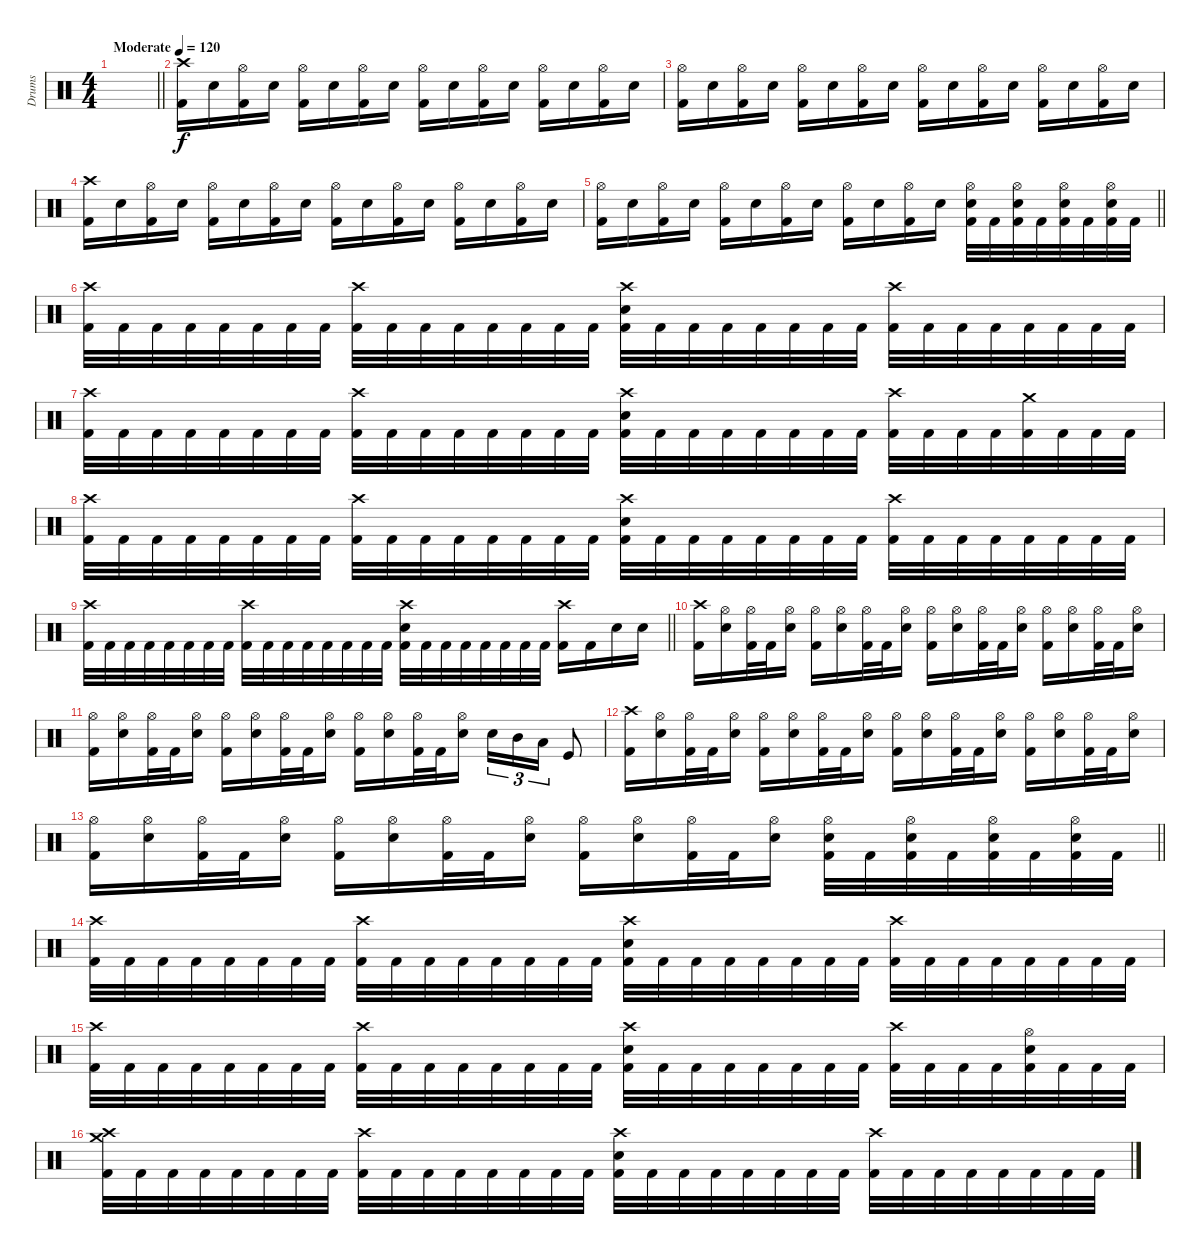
\track ("Drums" "Drums") {instrument percussion}
\staff
\articulation defaults
\ts (4 4)
\tempo (120 "Moderate")
\clef neutral
\barLineRight lightlight
\ks c
|
("Crash high (hit)" "Kick (hit) 2").16 "Electric Snare (hit)".16 ("Hi-Hat (open)" "Kick (hit) 2").16 "Electric Snare (hit)".16 ("Hi-Hat (open)" "Kick (hit) 2").16 "Electric Snare (hit)".16 ("Hi-Hat (open)" "Kick (hit) 2").16 "Electric Snare (hit)".16 ("Hi-Hat (open)" "Kick (hit) 2").16 "Electric Snare (hit)".16 ("Hi-Hat (open)" "Kick (hit) 2").16 "Electric Snare (hit)".16 ("Hi-Hat (open)" "Kick (hit) 2").16 "Electric Snare (hit)".16 ("Hi-Hat (open)" "Kick (hit) 2").16 "Electric Snare (hit)".16 |
("Hi-Hat (open)" "Kick (hit) 2").16 "Electric Snare (hit)".16 ("Hi-Hat (open)" "Kick (hit) 2").16 "Electric Snare (hit)".16 ("Hi-Hat (open)" "Kick (hit) 2").16 "Electric Snare (hit)".16 ("Hi-Hat (open)" "Kick (hit) 2").16 "Electric Snare (hit)".16 ("Hi-Hat (open)" "Kick (hit) 2").16 "Electric Snare (hit)".16 ("Hi-Hat (open)" "Kick (hit) 2").16 "Electric Snare (hit)".16 ("Hi-Hat (open)" "Kick (hit) 2").16 "Electric Snare (hit)".16 ("Hi-Hat (open)" "Kick (hit) 2").16 "Electric Snare (hit)".16 |
("Crash high (hit)" "Kick (hit) 2").16 "Electric Snare (hit)".16 ("Hi-Hat (open)" "Kick (hit) 2").16 "Electric Snare (hit)".16 ("Hi-Hat (open)" "Kick (hit) 2").16 "Electric Snare (hit)".16 ("Hi-Hat (open)" "Kick (hit) 2").16 "Electric Snare (hit)".16 ("Hi-Hat (open)" "Kick (hit) 2").16 "Electric Snare (hit)".16 ("Hi-Hat (open)" "Kick (hit) 2").16 "Electric Snare (hit)".16 ("Hi-Hat (open)" "Kick (hit) 2").16 "Electric Snare (hit)".16 ("Hi-Hat (open)" "Kick (hit) 2").16 "Electric Snare (hit)".16 |
\barLineRight lightlight
("Hi-Hat (open)" "Kick (hit) 2").16 "Electric Snare (hit)".16 ("Hi-Hat (open)" "Kick (hit) 2").16 "Electric Snare (hit)".16 ("Hi-Hat (open)" "Kick (hit) 2").16 "Electric Snare (hit)".16 ("Hi-Hat (open)" "Kick (hit) 2").16 "Electric Snare (hit)".16 ("Hi-Hat (open)" "Kick (hit) 2").16 "Electric Snare (hit)".16 ("Hi-Hat (open)" "Kick (hit) 2").16 "Electric Snare (hit)".16 ("Hi-Hat (open)" "Electric Snare (hit)" "Kick (hit) 2").32 "Kick (hit) 2".32 ("Hi-Hat (open)" "Electric Snare (hit)" "Kick (hit) 2").32 "Kick (hit) 2".32 ("Hi-Hat (open)" "Electric Snare (hit)" "Kick (hit) 2").32 "Kick (hit) 2".32 ("Hi-Hat (open)" "Electric Snare (hit)" "Kick (hit) 2").32 "Kick (hit) 2".32 |
("Crash high (hit)" "Kick (hit) 2").32 "Kick (hit) 2".32 "Kick (hit) 2".32 "Kick (hit) 2".32 "Kick (hit) 2".32 "Kick (hit) 2".32 "Kick (hit) 2".32 "Kick (hit) 2".32 ("Crash high (hit)" "Kick (hit) 2").32 "Kick (hit) 2".32 "Kick (hit) 2".32 "Kick (hit) 2".32 "Kick (hit) 2".32 "Kick (hit) 2".32 "Kick (hit) 2".32 "Kick (hit) 2".32 ("Crash high (hit)" "Electric Snare (hit)" "Kick (hit) 2").32 "Kick (hit) 2".32 "Kick (hit) 2".32 "Kick (hit) 2".32 "Kick (hit) 2".32 "Kick (hit) 2".32 "Kick (hit) 2".32 "Kick (hit) 2".32 ("Crash high (hit)" "Kick (hit) 2").32 "Kick (hit) 2".32 "Kick (hit) 2".32 "Kick (hit) 2".32 "Kick (hit) 2".32 "Kick (hit) 2".32 "Kick (hit) 2".32 "Kick (hit) 2".32 |
("Crash high (hit)" "Kick (hit) 2").32 "Kick (hit) 2".32 "Kick (hit) 2".32 "Kick (hit) 2".32 "Kick (hit) 2".32 "Kick (hit) 2".32 "Kick (hit) 2".32 "Kick (hit) 2".32 ("Crash high (hit)" "Kick (hit) 2").32 "Kick (hit) 2".32 "Kick (hit) 2".32 "Kick (hit) 2".32 "Kick (hit) 2".32 "Kick (hit) 2".32 "Kick (hit) 2".32 "Kick (hit) 2".32 ("Crash high (hit)" "Electric Snare (hit)" "Kick (hit) 2").32 "Kick (hit) 2".32 "Kick (hit) 2".32 "Kick (hit) 2".32 "Kick (hit) 2".32 "Kick (hit) 2".32 "Kick (hit) 2".32 "Kick (hit) 2".32 ("Crash high (hit)" "Kick (hit) 2").32 "Kick (hit) 2".32 "Kick (hit) 2".32 "Kick (hit) 2".32 ("Crash medium (hit)" "Kick (hit) 2").32 "Kick (hit) 2".32 "Kick (hit) 2".32 "Kick (hit) 2".32 |
("Crash high (hit)" "Kick (hit) 2").32 "Kick (hit) 2".32 "Kick (hit) 2".32 "Kick (hit) 2".32 "Kick (hit) 2".32 "Kick (hit) 2".32 "Kick (hit) 2".32 "Kick (hit) 2".32 ("Crash high (hit)" "Kick (hit) 2").32 "Kick (hit) 2".32 "Kick (hit) 2".32 "Kick (hit) 2".32 "Kick (hit) 2".32 "Kick (hit) 2".32 "Kick (hit) 2".32 "Kick (hit) 2".32 ("Crash high (hit)" "Electric Snare (hit)" "Kick (hit) 2").32 "Kick (hit) 2".32 "Kick (hit) 2".32 "Kick (hit) 2".32 "Kick (hit) 2".32 "Kick (hit) 2".32 "Kick (hit) 2".32 "Kick (hit) 2".32 ("Crash high (hit)" "Kick (hit) 2").32 "Kick (hit) 2".32 "Kick (hit) 2".32 "Kick (hit) 2".32 "Kick (hit) 2".32 "Kick (hit) 2".32 "Kick (hit) 2".32 "Kick (hit) 2".32 |
\barLineRight lightlight
("Crash high (hit)" "Kick (hit) 2").32 "Kick (hit) 2".32 "Kick (hit) 2".32 "Kick (hit) 2".32 "Kick (hit) 2".32 "Kick (hit) 2".32 "Kick (hit) 2".32 "Kick (hit) 2".32 ("Crash high (hit)" "Kick (hit) 2").32 "Kick (hit) 2".32 "Kick (hit) 2".32 "Kick (hit) 2".32 "Kick (hit) 2".32 "Kick (hit) 2".32 "Kick (hit) 2".32 "Kick (hit) 2".32 ("Crash high (hit)" "Electric Snare (hit)" "Kick (hit) 2").32 "Kick (hit) 2".32 "Kick (hit) 2".32 "Kick (hit) 2".32 "Kick (hit) 2".32 "Kick (hit) 2".32 "Kick (hit) 2".32 "Kick (hit) 2".32 ("Crash high (hit)" "Kick (hit) 2").16 "Kick (hit) 2".16 "Electric Snare (hit)".16 "Electric Snare (hit)".16 |
("Crash high (hit)" "Kick (hit) 2").16 ("Hi-Hat (open)" "Electric Snare (hit)").16 ("Hi-Hat (open)" "Kick (hit) 2").32 "Kick (hit) 2".32 ("Hi-Hat (open)" "Electric Snare (hit)").16 ("Hi-Hat (open)" "Kick (hit) 2").16 ("Hi-Hat (open)" "Electric Snare (hit)").16 ("Hi-Hat (open)" "Kick (hit) 2").32 "Kick (hit) 2".32 ("Hi-Hat (open)" "Electric Snare (hit)").16 ("Hi-Hat (open)" "Kick (hit) 2").16 ("Hi-Hat (open)" "Electric Snare (hit)").16 ("Hi-Hat (open)" "Kick (hit) 2").32 "Kick (hit) 2".32 ("Hi-Hat (open)" "Electric Snare (hit)").16 ("Hi-Hat (open)" "Kick (hit) 2").16 ("Hi-Hat (open)" "Electric Snare (hit)").16 ("Hi-Hat (open)" "Kick (hit) 2").32 "Kick (hit) 2".32 ("Hi-Hat (open)" "Electric Snare (hit)").16 |
("Hi-Hat (open)" "Kick (hit) 2").16 ("Hi-Hat (open)" "Electric Snare (hit)").16 ("Hi-Hat (open)" "Kick (hit) 2").32 "Kick (hit) 2".32 ("Hi-Hat (open)" "Electric Snare (hit)").16 ("Hi-Hat (open)" "Kick (hit) 2").16 ("Hi-Hat (open)" "Electric Snare (hit)").16 ("Hi-Hat (open)" "Kick (hit) 2").32 "Kick (hit) 2".32 ("Hi-Hat (open)" "Electric Snare (hit)").16 ("Hi-Hat (open)" "Kick (hit) 2").16 ("Hi-Hat (open)" "Electric Snare (hit)").16 ("Hi-Hat (open)" "Kick (hit) 2").32 "Kick (hit) 2".32 ("Hi-Hat (open)" "Electric Snare (hit)").16 "Electric Snare (hit)".16{tu (3 2)} "Mid Tom (hit)".16{tu (3 2)} "Low Tom (hit)".16{tu (3 2)} "Kick (hit)".8 |
("Crash high (hit)" "Kick (hit) 2").16 ("Hi-Hat (open)" "Electric Snare (hit)").16 ("Hi-Hat (open)" "Kick (hit) 2").32 "Kick (hit) 2".32 ("Hi-Hat (open)" "Electric Snare (hit)").16 ("Hi-Hat (open)" "Kick (hit) 2").16 ("Hi-Hat (open)" "Electric Snare (hit)").16 ("Hi-Hat (open)" "Kick (hit) 2").32 "Kick (hit) 2".32 ("Hi-Hat (open)" "Electric Snare (hit)").16 ("Hi-Hat (open)" "Kick (hit) 2").16 ("Hi-Hat (open)" "Electric Snare (hit)").16 ("Hi-Hat (open)" "Kick (hit) 2").32 "Kick (hit) 2".32 ("Hi-Hat (open)" "Electric Snare (hit)").16 ("Hi-Hat (open)" "Kick (hit) 2").16 ("Hi-Hat (open)" "Electric Snare (hit)").16 ("Hi-Hat (open)" "Kick (hit) 2").32 "Kick (hit) 2".32 ("Hi-Hat (open)" "Electric Snare (hit)").16 |
\barLineRight lightlight
("Hi-Hat (open)" "Kick (hit) 2").16 ("Hi-Hat (open)" "Electric Snare (hit)").16 ("Hi-Hat (open)" "Kick (hit) 2").32 "Kick (hit) 2".32 ("Hi-Hat (open)" "Electric Snare (hit)").16 ("Hi-Hat (open)" "Kick (hit) 2").16 ("Hi-Hat (open)" "Electric Snare (hit)").16 ("Hi-Hat (open)" "Kick (hit) 2").32 "Kick (hit) 2".32 ("Hi-Hat (open)" "Electric Snare (hit)").16 ("Hi-Hat (open)" "Kick (hit) 2").16 ("Hi-Hat (open)" "Electric Snare (hit)").16 ("Hi-Hat (open)" "Kick (hit) 2").32 "Kick (hit) 2".32 ("Hi-Hat (open)" "Electric Snare (hit)").16 ("Hi-Hat (open)" "Electric Snare (hit)" "Kick (hit) 2").32 "Kick (hit) 2".32 ("Hi-Hat (open)" "Electric Snare (hit)" "Kick (hit) 2").32 "Kick (hit) 2".32 ("Hi-Hat (open)" "Electric Snare (hit)" "Kick (hit) 2").32 "Kick (hit) 2".32 ("Hi-Hat (open)" "Electric Snare (hit)" "Kick (hit) 2").32 "Kick (hit) 2".32 |
("Crash high (hit)" "Kick (hit) 2").32 "Kick (hit) 2".32 "Kick (hit) 2".32 "Kick (hit) 2".32 "Kick (hit) 2".32 "Kick (hit) 2".32 "Kick (hit) 2".32 "Kick (hit) 2".32 ("Crash high (hit)" "Kick (hit) 2").32 "Kick (hit) 2".32 "Kick (hit) 2".32 "Kick (hit) 2".32 "Kick (hit) 2".32 "Kick (hit) 2".32 "Kick (hit) 2".32 "Kick (hit) 2".32 ("Crash high (hit)" "Electric Snare (hit)" "Kick (hit) 2").32 "Kick (hit) 2".32 "Kick (hit) 2".32 "Kick (hit) 2".32 "Kick (hit) 2".32 "Kick (hit) 2".32 "Kick (hit) 2".32 "Kick (hit) 2".32 ("Crash high (hit)" "Kick (hit) 2").32 "Kick (hit) 2".32 "Kick (hit) 2".32 "Kick (hit) 2".32 "Kick (hit) 2".32 "Kick (hit) 2".32 "Kick (hit) 2".32 "Kick (hit) 2".32 |
("Crash high (hit)" "Kick (hit) 2").32 "Kick (hit) 2".32 "Kick (hit) 2".32 "Kick (hit) 2".32 "Kick (hit) 2".32 "Kick (hit) 2".32 "Kick (hit) 2".32 "Kick (hit) 2".32 ("Crash high (hit)" "Kick (hit) 2").32 "Kick (hit) 2".32 "Kick (hit) 2".32 "Kick (hit) 2".32 "Kick (hit) 2".32 "Kick (hit) 2".32 "Kick (hit) 2".32 "Kick (hit) 2".32 ("Crash high (hit)" "Electric Snare (hit)" "Kick (hit) 2").32 "Kick (hit) 2".32 "Kick (hit) 2".32 "Kick (hit) 2".32 "Kick (hit) 2".32 "Kick (hit) 2".32 "Kick (hit) 2".32 "Kick (hit) 2".32 ("Crash high (hit)" "Kick (hit) 2").32 "Kick (hit) 2".32 "Kick (hit) 2".32 "Kick (hit) 2".32 ("Hi-Hat (open)" "Electric Snare (hit)" "Kick (hit) 2").32 "Kick (hit) 2".32 "Kick (hit) 2".32 "Kick (hit) 2".32 |
("Crash high (hit)" "Crash medium (hit)" "Kick (hit) 2").32 "Kick (hit) 2".32 "Kick (hit) 2".32 "Kick (hit) 2".32 "Kick (hit) 2".32 "Kick (hit) 2".32 "Kick (hit) 2".32 "Kick (hit) 2".32 ("Crash high (hit)" "Kick (hit) 2").32 "Kick (hit) 2".32 "Kick (hit) 2".32 "Kick (hit) 2".32 "Kick (hit) 2".32 "Kick (hit) 2".32 "Kick (hit) 2".32 "Kick (hit) 2".32 ("Crash high (hit)" "Electric Snare (hit)" "Kick (hit) 2").32 "Kick (hit) 2".32 "Kick (hit) 2".32 "Kick (hit) 2".32 "Kick (hit) 2".32 "Kick (hit) 2".32 "Kick (hit) 2".32 "Kick (hit) 2".32 ("Crash high (hit)" "Kick (hit) 2").32 "Kick (hit) 2".32 "Kick (hit) 2".32 "Kick (hit) 2".32 "Kick (hit) 2".32 "Kick (hit) 2".32 "Kick (hit) 2".32 "Kick (hit) 2".32
